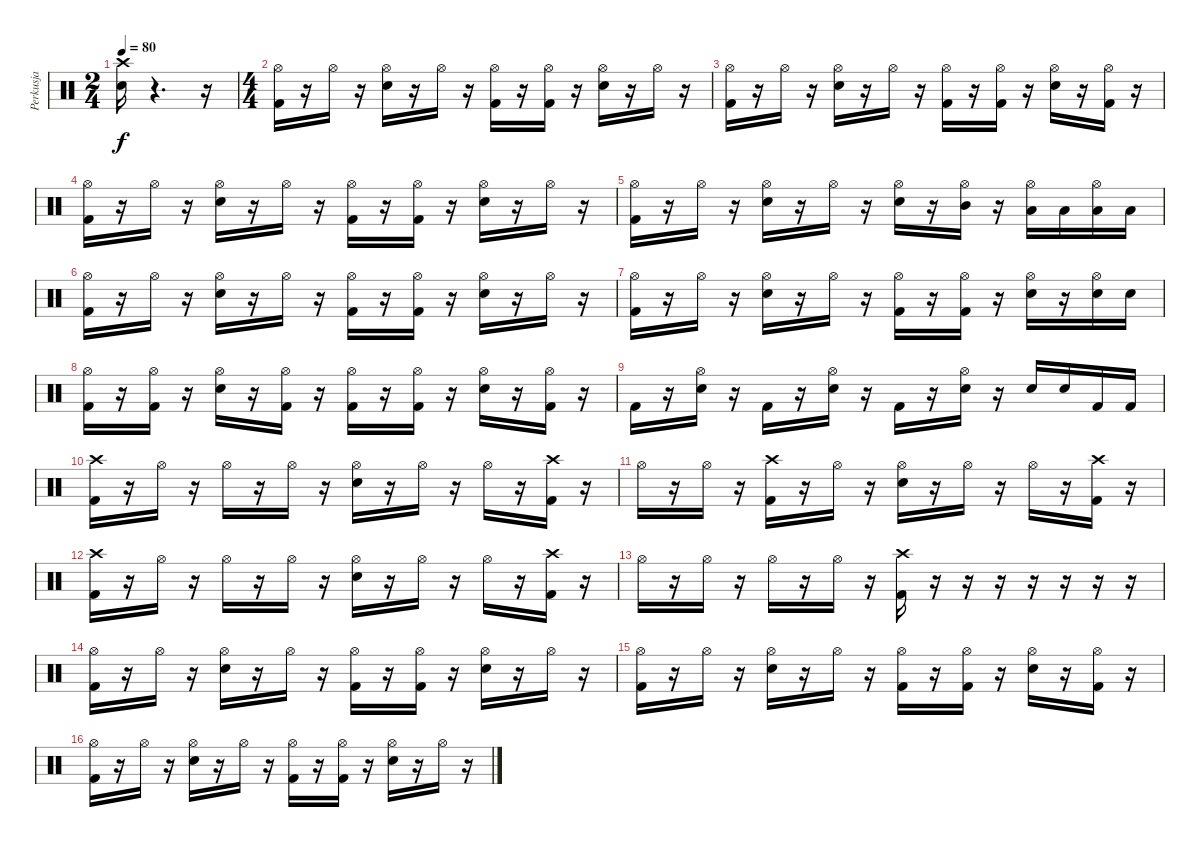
\track ("Perkusja" "Perkusja") {instrument percussion}
\staff {score}
\articulation defaults
\ts (2 4)
\tempo 80
\clef neutral
\ks c
("Crash high (hit)" "Snare (hit) 2").16{dy f} r.4{d} r.16 |
\ts (4 4)
("Hi-Hat (open)" "Kick (hit) 2").16 r.16 "Hi-Hat (open)".16 r.16 ("Hi-Hat (open)" "Snare (hit) 2").16 r.16 "Hi-Hat (open)".16 r.16 ("Hi-Hat (open)" "Kick (hit) 2").16 r.16 ("Hi-Hat (open)" "Kick (hit) 2").16 r.16 ("Hi-Hat (open)" "Snare (hit) 2").16 r.16 "Hi-Hat (open)".16 r.16 |
("Hi-Hat (open)" "Kick (hit) 2").16 r.16 "Hi-Hat (open)".16 r.16 ("Hi-Hat (open)" "Snare (hit) 2").16 r.16 "Hi-Hat (open)".16 r.16 ("Hi-Hat (open)" "Kick (hit) 2").16 r.16 ("Hi-Hat (open)" "Kick (hit) 2").16 r.16 ("Hi-Hat (open)" "Snare (hit) 2").16 r.16 ("Hi-Hat (open)" "Kick (hit) 2").16 r.16 |
("Hi-Hat (open)" "Kick (hit) 2").16 r.16 "Hi-Hat (open)".16 r.16 ("Hi-Hat (open)" "Snare (hit) 2").16 r.16 "Hi-Hat (open)".16 r.16 ("Hi-Hat (open)" "Kick (hit) 2").16 r.16 ("Hi-Hat (open)" "Kick (hit) 2").16 r.16 ("Hi-Hat (open)" "Snare (hit) 2").16 r.16 "Hi-Hat (open)".16 r.16 |
("Hi-Hat (open)" "Kick (hit) 2").16 r.16 "Hi-Hat (open)".16 r.16 ("Hi-Hat (open)" "Snare (hit) 2").16 r.16 "Hi-Hat (open)".16 r.16 ("Hi-Hat (open)" "Snare (hit) 2").16 r.16 ("Hi-Hat (open)" "Mid Tom (hit)").16 r.16 ("Hi-Hat (open)" "Low Tom (hit)").16 "Low Tom (hit)".16 ("Hi-Hat (open)" "Low Floor Tom (hit)").16 "Low Floor Tom (hit)".16 |
("Hi-Hat (open)" "Kick (hit) 2").16 r.16 "Hi-Hat (open)".16 r.16 ("Hi-Hat (open)" "Snare (hit) 2").16 r.16 "Hi-Hat (open)".16 r.16 ("Hi-Hat (open)" "Kick (hit) 2").16 r.16 ("Hi-Hat (open)" "Kick (hit) 2").16 r.16 ("Hi-Hat (open)" "Snare (hit) 2").16 r.16 "Hi-Hat (open)".16 r.16 |
("Hi-Hat (open)" "Kick (hit) 2").16 r.16 "Hi-Hat (open)".16 r.16 ("Hi-Hat (open)" "Snare (hit) 2").16 r.16 "Hi-Hat (open)".16 r.16 ("Hi-Hat (open)" "Kick (hit) 2").16 r.16 ("Hi-Hat (open)" "Kick (hit) 2").16 r.16 ("Hi-Hat (open)" "Snare (hit) 2").16 r.16 ("Hi-Hat (open)" "Snare (hit) 2").16 "Snare (hit) 2".16 |
("Hi-Hat (open)" "Kick (hit) 2").16 r.16 ("Hi-Hat (open)" "Kick (hit) 2").16 r.16 ("Hi-Hat (open)" "Snare (hit) 2").16 r.16 ("Hi-Hat (open)" "Kick (hit) 2").16 r.16 ("Hi-Hat (open)" "Kick (hit) 2").16 r.16 ("Hi-Hat (open)" "Kick (hit) 2").16 r.16 ("Hi-Hat (open)" "Snare (hit) 2").16 r.16 ("Hi-Hat (open)" "Kick (hit) 2").16 r.16 |
"Kick (hit) 2".16 r.16 ("Hi-Hat (open)" "Snare (hit) 2").16 r.16 "Kick (hit) 2".16 r.16 ("Hi-Hat (open)" "Snare (hit) 2").16 r.16 "Kick (hit) 2".16 r.16 ("Hi-Hat (open)" "Snare (hit) 2").16 r.16 "Snare (hit) 2".16 "Snare (hit) 2".16 "Kick (hit) 2".16 "Kick (hit) 2".16 |
("Crash high (hit)" "Kick (hit) 2").16 r.16 "Hi-Hat (open)".16 r.16 "Hi-Hat (open)".16 r.16 "Hi-Hat (open)".16 r.16 ("Hi-Hat (open)" "Snare (hit) 2").16 r.16 "Hi-Hat (open)".16 r.16 "Hi-Hat (open)".16 r.16 ("Crash high (hit)" "Kick (hit) 2").16 r.16 |
"Hi-Hat (open)".16 r.16 "Hi-Hat (open)".16 r.16 ("Crash high (hit)" "Kick (hit) 2").16 r.16 "Hi-Hat (open)".16 r.16 ("Hi-Hat (open)" "Snare (hit) 2").16 r.16 "Hi-Hat (open)".16 r.16 "Hi-Hat (open)".16 r.16 ("Crash high (hit)" "Kick (hit) 2").16 r.16 |
("Crash high (hit)" "Kick (hit) 2").16 r.16 "Hi-Hat (open)".16 r.16 "Hi-Hat (open)".16 r.16 "Hi-Hat (open)".16 r.16 ("Hi-Hat (open)" "Snare (hit) 2").16 r.16 "Hi-Hat (open)".16 r.16 "Hi-Hat (open)".16 r.16 ("Crash high (hit)" "Kick (hit) 2").16 r.16 |
"Hi-Hat (open)".16 r.16 "Hi-Hat (open)".16 r.16 "Hi-Hat (open)".16 r.16 "Hi-Hat (open)".16 r.16 ("Crash high (hit)" "Kick (hit) 2").16 r.16 r.16 r.16 r.16 r.16 r.16 r.16 |
("Hi-Hat (open)" "Kick (hit) 2").16 r.16 "Hi-Hat (open)".16 r.16 ("Hi-Hat (open)" "Snare (hit) 2").16 r.16 "Hi-Hat (open)".16 r.16 ("Hi-Hat (open)" "Kick (hit) 2").16 r.16 ("Hi-Hat (open)" "Kick (hit) 2").16 r.16 ("Hi-Hat (open)" "Snare (hit) 2").16 r.16 "Hi-Hat (open)".16 r.16 |
("Hi-Hat (open)" "Kick (hit) 2").16 r.16 "Hi-Hat (open)".16 r.16 ("Hi-Hat (open)" "Snare (hit) 2").16 r.16 "Hi-Hat (open)".16 r.16 ("Hi-Hat (open)" "Kick (hit) 2").16 r.16 ("Hi-Hat (open)" "Kick (hit) 2").16 r.16 ("Hi-Hat (open)" "Snare (hit) 2").16 r.16 ("Hi-Hat (open)" "Kick (hit) 2").16 r.16 |
("Hi-Hat (open)" "Kick (hit) 2").16 r.16 "Hi-Hat (open)".16 r.16 ("Hi-Hat (open)" "Snare (hit) 2").16 r.16 "Hi-Hat (open)".16 r.16 ("Hi-Hat (open)" "Kick (hit) 2").16 r.16 ("Hi-Hat (open)" "Kick (hit) 2").16 r.16 ("Hi-Hat (open)" "Snare (hit) 2").16 r.16 "Hi-Hat (open)".16 r.16
